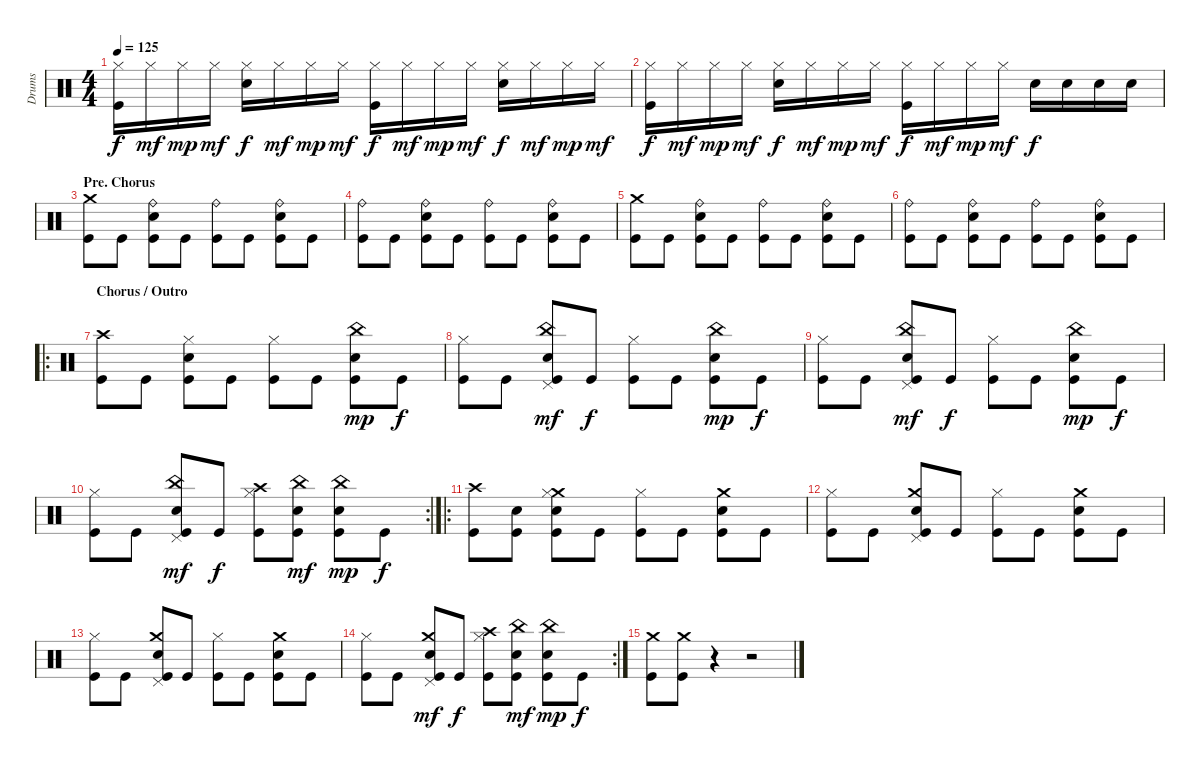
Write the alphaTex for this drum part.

\track ("Drums" "Drums") {instrument percussion}
\staff {score}
\articulation defaults
\ts (4 4)
\tempo 125
\clef neutral
\ks c
("Hi-Hat (closed)" "Kick (hit)").16{dy f} "Hi-Hat (closed)".16{dy mf} "Hi-Hat (closed)".16{dy mp} "Hi-Hat (closed)".16{dy mf} ("Hi-Hat (closed)" "Snare (hit) 2").16{dy f} "Hi-Hat (closed)".16{dy mf} "Hi-Hat (closed)".16{dy mp} "Hi-Hat (closed)".16{dy mf} ("Hi-Hat (closed)" "Kick (hit)").16{dy f} "Hi-Hat (closed)".16{dy mf} "Hi-Hat (closed)".16{dy mp} "Hi-Hat (closed)".16{dy mf} ("Hi-Hat (closed)" "Snare (hit) 2").16{dy f} "Hi-Hat (closed)".16{dy mf} "Hi-Hat (closed)".16{dy mp} "Hi-Hat (closed)".16{dy mf} |
("Hi-Hat (closed)" "Kick (hit)").16{dy f} "Hi-Hat (closed)".16{dy mf} "Hi-Hat (closed)".16{dy mp} "Hi-Hat (closed)".16{dy mf} ("Hi-Hat (closed)" "Snare (hit) 2").16{dy f} "Hi-Hat (closed)".16{dy mf} "Hi-Hat (closed)".16{dy mp} "Hi-Hat (closed)".16{dy mf} ("Hi-Hat (closed)" "Kick (hit)").16{dy f} "Hi-Hat (closed)".16{dy mf} "Hi-Hat (closed)".16{dy mp} "Hi-Hat (closed)".16{dy mf} "Snare (hit) 2".16{dy f} "Snare (hit) 2".16 "Snare (hit) 2".16 "Snare (hit) 2".16 |
\section ("" "Pre. Chorus")
("Crash medium (hit)" "Kick (hit)").8 "Kick (hit)".8 ("Ride (bell)" "Snare (hit) 2" "Kick (hit)").8 "Kick (hit)".8 ("Ride (bell)" "Kick (hit)").8 "Kick (hit)".8 ("Ride (bell)" "Snare (hit) 2" "Kick (hit)").8 "Kick (hit)".8 |
("Ride (bell)" "Kick (hit)").8 "Kick (hit)".8 ("Ride (bell)" "Snare (hit) 2" "Kick (hit)").8 "Kick (hit)".8 ("Ride (bell)" "Kick (hit)").8 "Kick (hit)".8 ("Ride (bell)" "Snare (hit) 2" "Kick (hit)").8 "Kick (hit)".8 |
("Crash medium (hit)" "Kick (hit)").8 "Kick (hit)".8 ("Ride (bell)" "Snare (hit) 2" "Kick (hit)").8 "Kick (hit)".8 ("Ride (bell)" "Kick (hit)").8 "Kick (hit)".8 ("Ride (bell)" "Snare (hit) 2" "Kick (hit)").8 "Kick (hit)".8 |
("Ride (bell)" "Kick (hit)").8 "Kick (hit)".8 ("Ride (bell)" "Snare (hit) 2" "Kick (hit)").8 "Kick (hit)".8 ("Ride (bell)" "Kick (hit)").8 "Kick (hit)".8 ("Ride (bell)" "Snare (hit) 2" "Kick (hit)").8 "Kick (hit)".8 |
\ro
\section ("" "Chorus / Outro")
("Crash high (hit)" "Kick (hit)").8 "Kick (hit)".8 ("Hi-Hat (closed)" "Snare (hit) 2" "Kick (hit)").8 "Kick (hit)".8 ("Hi-Hat (closed)" "Kick (hit)").8 "Kick (hit)".8 ("China (hit)" "Snare (hit) 2" "Kick (hit)").8{dy mp} "Kick (hit)".8{dy f} |
("Hi-Hat (closed)" "Kick (hit)").8 "Kick (hit)".8 ("China (hit)" "Pedal Hi-Hat (hit)" "Snare (hit) 2" "Kick (hit)").8{dy mf} "Kick (hit)".8{dy f} ("Hi-Hat (closed)" "Kick (hit)").8 "Kick (hit)".8 ("China (hit)" "Snare (hit) 2" "Kick (hit)").8{dy mp} "Kick (hit)".8{dy f} |
("Hi-Hat (closed)" "Kick (hit)").8 "Kick (hit)".8 ("China (hit)" "Pedal Hi-Hat (hit)" "Snare (hit) 2" "Kick (hit)").8{dy mf} "Kick (hit)".8{dy f} ("Hi-Hat (closed)" "Kick (hit)").8 "Kick (hit)".8 ("China (hit)" "Snare (hit) 2" "Kick (hit)").8{dy mp} "Kick (hit)".8{dy f} |
\rc 2
("Hi-Hat (closed)" "Kick (hit)").8 "Kick (hit)".8 ("China (hit)" "Pedal Hi-Hat (hit)" "Snare (hit) 2" "Kick (hit)").8{dy mf} "Kick (hit)".8{dy f} ("Crash high (hit)" "Hi-Hat (closed)" "Kick (hit)").8 ("China (hit)" "Snare (hit) 2" "Kick (hit)").8{dy mf} ("China (hit)" "Snare (hit) 2" "Kick (hit)").8{dy mp} "Kick (hit)".8{dy f} |
\ro
("Crash high (hit)" "Kick (hit)").8 ("Snare (hit) 2" "Kick (hit)").8 ("Crash medium (hit)" "Hi-Hat (closed)" "Snare (hit) 2" "Kick (hit)").8 "Kick (hit)".8 ("Hi-Hat (closed)" "Kick (hit)").8 "Kick (hit)".8 ("Crash medium (hit)" "Snare (hit) 2" "Kick (hit)").8 "Kick (hit)".8 |
("Hi-Hat (closed)" "Kick (hit)").8 "Kick (hit)".8 ("Crash medium (hit)" "Pedal Hi-Hat (hit)" "Snare (hit) 2" "Kick (hit)").8 "Kick (hit)".8 ("Hi-Hat (closed)" "Kick (hit)").8 "Kick (hit)".8 ("Crash medium (hit)" "Snare (hit) 2" "Kick (hit)").8 "Kick (hit)".8 |
("Hi-Hat (closed)" "Kick (hit)").8 "Kick (hit)".8 ("Crash medium (hit)" "Pedal Hi-Hat (hit)" "Snare (hit) 2" "Kick (hit)").8 "Kick (hit)".8 ("Hi-Hat (closed)" "Kick (hit)").8 "Kick (hit)".8 ("Crash medium (hit)" "Snare (hit) 2" "Kick (hit)").8 "Kick (hit)".8 |
\rc 2
("Hi-Hat (closed)" "Kick (hit)").8 "Kick (hit)".8 ("Crash medium (hit)" "Pedal Hi-Hat (hit)" "Snare (hit) 2" "Kick (hit)").8{dy mf} "Kick (hit)".8{dy f} ("Crash high (hit)" "Hi-Hat (closed)" "Kick (hit)").8 ("China (hit)" "Snare (hit) 2" "Kick (hit)").8{dy mf} ("China (hit)" "Snare (hit) 2" "Kick (hit)").8{dy mp} "Kick (hit)".8{dy f} |
("Crash medium (hit)" "Kick (hit)").8 ("Crash medium (hit)" "Kick (hit)").8 r.4 r.2
